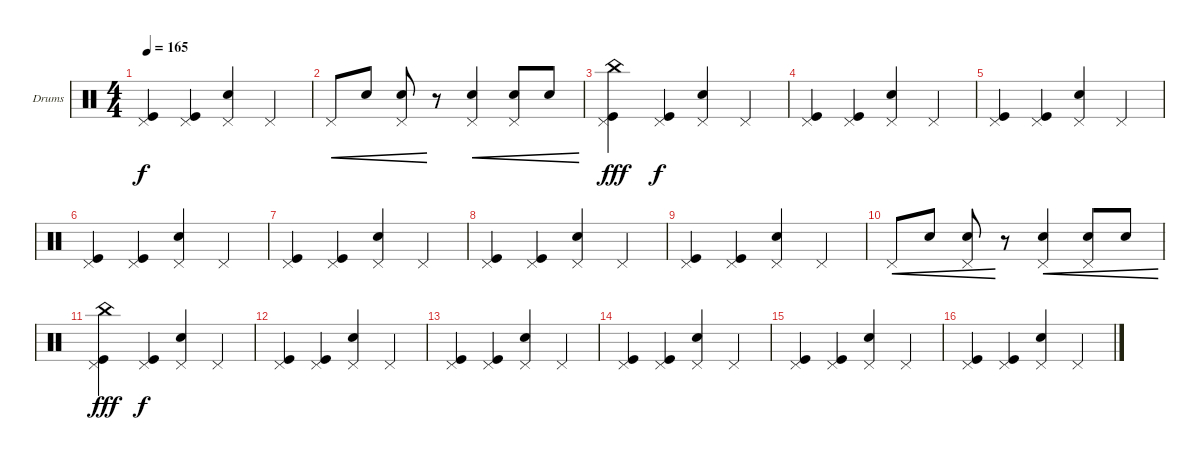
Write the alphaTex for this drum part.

\bracketExtendMode groupsimilarinstruments
\firstSystemTrackNameOrientation horizontal
\otherSystemsTrackNameOrientation horizontal
\track ("Drumkit" "Drums") {instrument percussion}
\staff {score}
\articulation defaults
\ts (4 4)
\beaming (8 2 2 2 2)
\tempo 165
\clef neutral
\ks c
("Pedal Hi-Hat (hit)" "Kick (hit)").4{dy f} ("Pedal Hi-Hat (hit)" "Kick (hit)").4 ("Pedal Hi-Hat (hit)" "Snare (hit) 2").4 "Pedal Hi-Hat (hit)".4 |
"Pedal Hi-Hat (hit)".8{cre} "Snare (hit) 2".8{cre} ("Pedal Hi-Hat (hit)" "Snare (hit) 2").8{cre} r.8 ("Snare (hit) 2" "Pedal Hi-Hat (hit)").4{cre} ("Snare (hit) 2" "Pedal Hi-Hat (hit)").8{cre} "Snare (hit) 2".8{cre} |
("Kick (hit)" "Pedal Hi-Hat (hit)" "China (hit)").4{dy fff} ("Pedal Hi-Hat (hit)" "Kick (hit)").4{dy f} ("Pedal Hi-Hat (hit)" "Snare (hit) 2").4 "Pedal Hi-Hat (hit)".4 |
("Pedal Hi-Hat (hit)" "Kick (hit)").4 ("Pedal Hi-Hat (hit)" "Kick (hit)").4 ("Pedal Hi-Hat (hit)" "Snare (hit) 2").4 "Pedal Hi-Hat (hit)".4 |
("Pedal Hi-Hat (hit)" "Kick (hit)").4 ("Pedal Hi-Hat (hit)" "Kick (hit)").4 ("Pedal Hi-Hat (hit)" "Snare (hit) 2").4 "Pedal Hi-Hat (hit)".4 |
("Pedal Hi-Hat (hit)" "Kick (hit)").4 ("Pedal Hi-Hat (hit)" "Kick (hit)").4 ("Pedal Hi-Hat (hit)" "Snare (hit) 2").4 "Pedal Hi-Hat (hit)".4 |
("Pedal Hi-Hat (hit)" "Kick (hit)").4 ("Pedal Hi-Hat (hit)" "Kick (hit)").4 ("Pedal Hi-Hat (hit)" "Snare (hit) 2").4 "Pedal Hi-Hat (hit)".4 |
("Pedal Hi-Hat (hit)" "Kick (hit)").4 ("Pedal Hi-Hat (hit)" "Kick (hit)").4 ("Pedal Hi-Hat (hit)" "Snare (hit) 2").4 "Pedal Hi-Hat (hit)".4 |
("Pedal Hi-Hat (hit)" "Kick (hit)").4 ("Pedal Hi-Hat (hit)" "Kick (hit)").4 ("Pedal Hi-Hat (hit)" "Snare (hit) 2").4 "Pedal Hi-Hat (hit)".4 |
"Pedal Hi-Hat (hit)".8{cre} "Snare (hit) 2".8{cre} ("Pedal Hi-Hat (hit)" "Snare (hit) 2").8{cre} r.8 ("Snare (hit) 2" "Pedal Hi-Hat (hit)").4{cre} ("Snare (hit) 2" "Pedal Hi-Hat (hit)").8{cre} "Snare (hit) 2".8{cre} |
("Kick (hit)" "Pedal Hi-Hat (hit)" "China (hit)").4{dy fff} ("Pedal Hi-Hat (hit)" "Kick (hit)").4{dy f} ("Pedal Hi-Hat (hit)" "Snare (hit) 2").4 "Pedal Hi-Hat (hit)".4 |
("Pedal Hi-Hat (hit)" "Kick (hit)").4 ("Pedal Hi-Hat (hit)" "Kick (hit)").4 ("Pedal Hi-Hat (hit)" "Snare (hit) 2").4 "Pedal Hi-Hat (hit)".4 |
("Pedal Hi-Hat (hit)" "Kick (hit)").4 ("Pedal Hi-Hat (hit)" "Kick (hit)").4 ("Pedal Hi-Hat (hit)" "Snare (hit) 2").4 "Pedal Hi-Hat (hit)".4 |
("Pedal Hi-Hat (hit)" "Kick (hit)").4 ("Pedal Hi-Hat (hit)" "Kick (hit)").4 ("Pedal Hi-Hat (hit)" "Snare (hit) 2").4 "Pedal Hi-Hat (hit)".4 |
("Pedal Hi-Hat (hit)" "Kick (hit)").4 ("Pedal Hi-Hat (hit)" "Kick (hit)").4 ("Pedal Hi-Hat (hit)" "Snare (hit) 2").4 "Pedal Hi-Hat (hit)".4 |
("Pedal Hi-Hat (hit)" "Kick (hit)").4 ("Pedal Hi-Hat (hit)" "Kick (hit)").4 ("Pedal Hi-Hat (hit)" "Snare (hit) 2").4 "Pedal Hi-Hat (hit)".4
